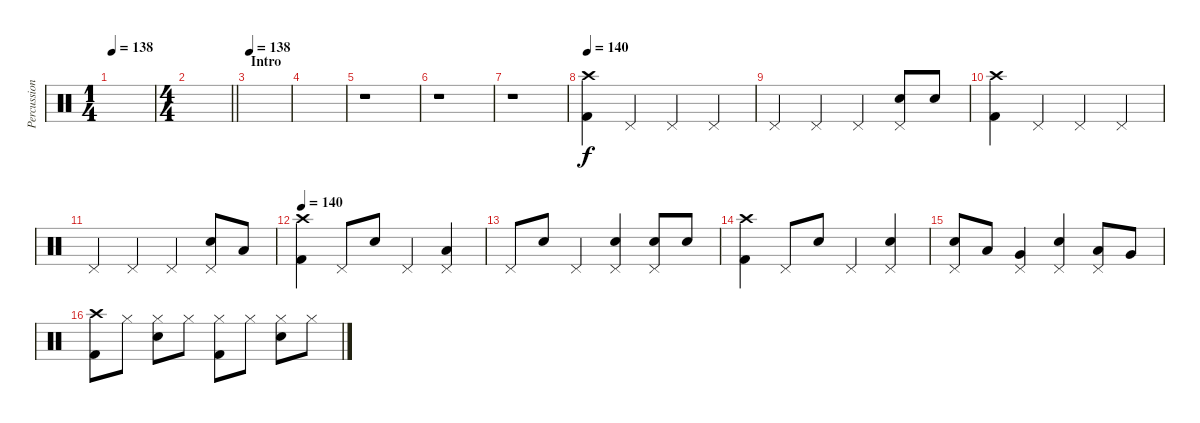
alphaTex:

\track ("Percussion" "Percussion") {instrument percussion}
\staff {score}
\articulation defaults
\ts (1 4)
\tempo 138
\clef neutral
\ks c
|
\ts (4 4)
\barLineRight lightlight
|
\section ("" "Intro")
\tempo 138
|
|
r.1 |
r.1 |
r.1 |
\tempo 140
("Crash high (hit)" "Kick (hit) 2").4 "Pedal Hi-Hat (hit)".4 "Pedal Hi-Hat (hit)".4 "Pedal Hi-Hat (hit)".4 |
"Pedal Hi-Hat (hit)".4 "Pedal Hi-Hat (hit)".4 "Pedal Hi-Hat (hit)".4 ("Pedal Hi-Hat (hit)" "Electric Snare (hit)").8 "Electric Snare (hit)".8 |
("Crash high (hit)" "Kick (hit) 2").4 "Pedal Hi-Hat (hit)".4 "Pedal Hi-Hat (hit)".4 "Pedal Hi-Hat (hit)".4 |
"Pedal Hi-Hat (hit)".4 "Pedal Hi-Hat (hit)".4 "Pedal Hi-Hat (hit)".4 ("Pedal Hi-Hat (hit)" "Electric Snare (hit)").8 "Low Tom (hit)".8 |
\tempo 140
("Crash high (hit)" "Kick (hit) 2").4 "Pedal Hi-Hat (hit)".8 "Electric Snare (hit)".8 "Pedal Hi-Hat (hit)".4 ("Low Tom (hit)" "Pedal Hi-Hat (hit)").4 |
"Pedal Hi-Hat (hit)".8 "Electric Snare (hit)".8 "Pedal Hi-Hat (hit)".4 ("Pedal Hi-Hat (hit)" "Electric Snare (hit)").4 ("Pedal Hi-Hat (hit)" "Electric Snare (hit)").8 "Electric Snare (hit)".8 |
("Crash high (hit)" "Kick (hit) 2").4 "Pedal Hi-Hat (hit)".8 "Electric Snare (hit)".8 "Pedal Hi-Hat (hit)".4 ("Pedal Hi-Hat (hit)" "Electric Snare (hit)").4 |
("Pedal Hi-Hat (hit)" "Electric Snare (hit)").8 "Low Tom (hit)".8 ("Very Low Tom (hit)" "Pedal Hi-Hat (hit)").4 ("Pedal Hi-Hat (hit)" "Electric Snare (hit)").4 ("Low Tom (hit)" "Pedal Hi-Hat (hit)").8 "Very Low Tom (hit)".8 |
("Crash high (hit)" "Kick (hit) 2").8 "Hi-Hat (closed)".8 ("Hi-Hat (closed)" "Electric Snare (hit)").8 "Hi-Hat (closed)".8 ("Hi-Hat (closed)" "Kick (hit) 2").8 "Hi-Hat (closed)".8 ("Hi-Hat (closed)" "Electric Snare (hit)").8 "Hi-Hat (closed)".8
